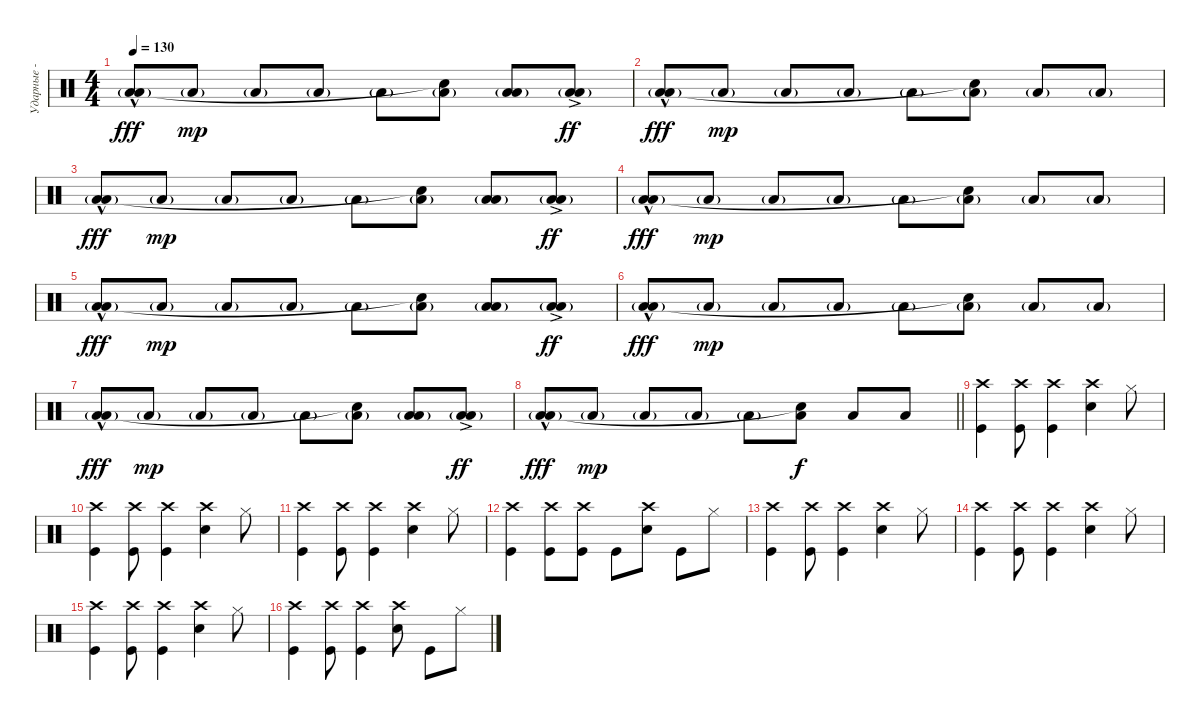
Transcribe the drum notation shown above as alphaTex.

\track ("Ударные - Джек Уайт" "Ударные - ") {instrument percussion}
\staff {score}
\articulation defaults
\ts (4 4)
\tempo 130
\clef neutral
\ks c
("Low Tom (hit)"{g} "Low Floor Tom (hit)"{hac}).8{dy fff} "Low Tom (hit)"{g}.8{dy mp} "Low Tom (hit)"{g}.8 "Low Tom (hit)"{g}.8 "Low Tom (hit)"{g}.8 ("Low Tom (hit)"{g} "Snare (hit)"{t}).8 ("Low Tom (hit)"{g} "Low Floor Tom (hit)").8 ("Low Tom (hit)"{g} "Low Floor Tom (hit)"{ac}).8{dy ff} |
("Low Tom (hit)"{g} "Low Floor Tom (hit)"{hac}).8{dy fff} "Low Tom (hit)"{g}.8{dy mp} "Low Tom (hit)"{g}.8 "Low Tom (hit)"{g}.8 "Low Tom (hit)"{g}.8 ("Low Tom (hit)"{g} "Snare (hit)"{t}).8 "Low Tom (hit)"{g}.8 "Low Tom (hit)"{g}.8 |
("Low Tom (hit)"{g} "Low Floor Tom (hit)"{hac}).8{dy fff} "Low Tom (hit)"{g}.8{dy mp} "Low Tom (hit)"{g}.8 "Low Tom (hit)"{g}.8 "Low Tom (hit)"{g}.8 ("Low Tom (hit)"{g} "Snare (hit)"{t}).8 ("Low Tom (hit)"{g} "Low Floor Tom (hit)").8 ("Low Tom (hit)"{g} "Low Floor Tom (hit)"{ac}).8{dy ff} |
("Low Tom (hit)"{g} "Low Floor Tom (hit)"{hac}).8{dy fff} "Low Tom (hit)"{g}.8{dy mp} "Low Tom (hit)"{g}.8 "Low Tom (hit)"{g}.8 "Low Tom (hit)"{g}.8 ("Low Tom (hit)"{g} "Snare (hit)"{t}).8 "Low Tom (hit)"{g}.8 "Low Tom (hit)"{g}.8 |
("Low Tom (hit)"{g} "Low Floor Tom (hit)"{hac}).8{dy fff} "Low Tom (hit)"{g}.8{dy mp} "Low Tom (hit)"{g}.8 "Low Tom (hit)"{g}.8 "Low Tom (hit)"{g}.8 ("Low Tom (hit)"{g} "Snare (hit)"{t}).8 ("Low Tom (hit)"{g} "Low Floor Tom (hit)").8 ("Low Tom (hit)"{g} "Low Floor Tom (hit)"{ac}).8{dy ff} |
("Low Tom (hit)"{g} "Low Floor Tom (hit)"{hac}).8{dy fff} "Low Tom (hit)"{g}.8{dy mp} "Low Tom (hit)"{g}.8 "Low Tom (hit)"{g}.8 "Low Tom (hit)"{g}.8 ("Low Tom (hit)"{g} "Snare (hit)"{t}).8 "Low Tom (hit)"{g}.8 "Low Tom (hit)"{g}.8 |
("Low Tom (hit)"{g} "Low Floor Tom (hit)"{hac}).8{dy fff} "Low Tom (hit)"{g}.8{dy mp} "Low Tom (hit)"{g}.8 "Low Tom (hit)"{g}.8 "Low Tom (hit)"{g}.8 ("Low Tom (hit)"{g} "Snare (hit)"{t}).8 ("Low Tom (hit)"{g} "Low Floor Tom (hit)").8 ("Low Tom (hit)"{g} "Low Floor Tom (hit)"{ac}).8{dy ff} |
\barLineRight lightlight
("Low Tom (hit)"{g} "Low Floor Tom (hit)"{hac}).8{dy fff} "Low Tom (hit)"{g}.8{dy mp} "Low Tom (hit)"{g}.8 "Low Tom (hit)"{g}.8 "Low Tom (hit)"{g}.8 ("Low Tom (hit)" "Snare (hit)"{t}).8{dy f} "Low Tom (hit)".8 "Low Tom (hit)".8 |
("Crash high (hit)" "Kick (hit)").4 ("Crash high (hit)" "Kick (hit)").8 ("Crash high (hit)" "Kick (hit)").4 ("Crash high (hit)" "Electric Snare (hit)").4 "Hi-Hat (closed)".8 |
("Crash high (hit)" "Kick (hit)").4 ("Crash high (hit)" "Kick (hit)").8 ("Crash high (hit)" "Kick (hit)").4 ("Crash high (hit)" "Electric Snare (hit)").4 "Hi-Hat (closed)".8 |
("Crash high (hit)" "Kick (hit)").4 ("Crash high (hit)" "Kick (hit)").8 ("Crash high (hit)" "Kick (hit)").4 ("Crash high (hit)" "Electric Snare (hit)").4 "Hi-Hat (closed)".8 |
("Crash high (hit)" "Kick (hit)").4 ("Crash high (hit)" "Kick (hit)").8 ("Crash high (hit)" "Kick (hit)").8 "Kick (hit)".8 ("Crash high (hit)" "Electric Snare (hit)").8 "Kick (hit)".8 "Hi-Hat (closed)".8 |
("Crash high (hit)" "Kick (hit)").4 ("Crash high (hit)" "Kick (hit)").8 ("Crash high (hit)" "Kick (hit)").4 ("Crash high (hit)" "Electric Snare (hit)").4 "Hi-Hat (closed)".8 |
("Crash high (hit)" "Kick (hit)").4 ("Crash high (hit)" "Kick (hit)").8 ("Crash high (hit)" "Kick (hit)").4 ("Crash high (hit)" "Electric Snare (hit)").4 "Hi-Hat (closed)".8 |
("Crash high (hit)" "Kick (hit)").4 ("Crash high (hit)" "Kick (hit)").8 ("Crash high (hit)" "Kick (hit)").4 ("Crash high (hit)" "Electric Snare (hit)").4 "Hi-Hat (closed)".8 |
("Crash high (hit)" "Kick (hit)").4 ("Crash high (hit)" "Kick (hit)").8 ("Crash high (hit)" "Kick (hit)").4 ("Crash high (hit)" "Electric Snare (hit)").8 "Kick (hit)".8 "Hi-Hat (closed)".8
